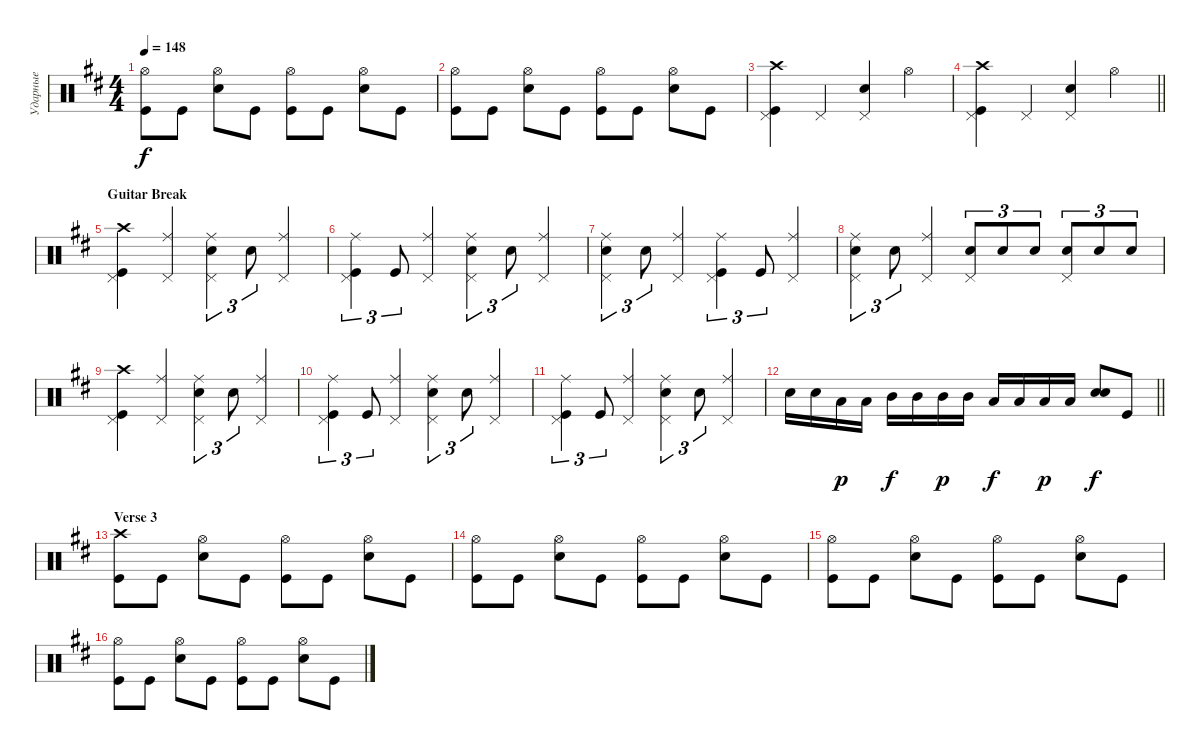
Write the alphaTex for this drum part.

\track ("Ударные" "Ударные") {instrument percussion}
\staff {score}
\articulation defaults
\ts (4 4)
\tempo 148
\clef neutral
\ks bminor
("Hi-Hat (open)" "Kick (hit)").8{dy f} "Kick (hit)".8 ("Snare (hit) 2" "Hi-Hat (open)").8 "Kick (hit)".8 ("Kick (hit)" "Hi-Hat (open)").8 "Kick (hit)".8 ("Snare (hit) 2" "Hi-Hat (open)").8 "Kick (hit)".8 |
("Hi-Hat (open)" "Kick (hit)").8 "Kick (hit)".8 ("Snare (hit) 2" "Hi-Hat (open)").8 "Kick (hit)".8 ("Kick (hit)" "Hi-Hat (open)").8 "Kick (hit)".8 ("Snare (hit) 2" "Hi-Hat (open)").8 "Kick (hit)".8 |
("Pedal Hi-Hat (hit)" "Crash high (hit)" "Kick (hit)").4 "Pedal Hi-Hat (hit)".4 ("Snare (hit) 2" "Pedal Hi-Hat (hit)").4 "Hi-Hat (open)".4 |
\barLineRight lightlight
("Kick (hit)" "Crash high (hit)" "Pedal Hi-Hat (hit)").4 "Pedal Hi-Hat (hit)".4 ("Snare (hit) 2" "Pedal Hi-Hat (hit)").4 "Hi-Hat (open)".4 |
\section ("" "Guitar Break")
("Kick (hit)" "Pedal Hi-Hat (hit)" "Crash high (hit)").4 ("Pedal Hi-Hat (hit)" "Ride (middle)").4 ("Snare (hit) 2" "Pedal Hi-Hat (hit)" "Ride (middle)").4{tu (3 2)} "Snare (hit) 2".8{tu (3 2)} ("Pedal Hi-Hat (hit)" "Ride (middle)").4 |
("Kick (hit)" "Pedal Hi-Hat (hit)" "Ride (middle)").4{tu (3 2)} "Kick (hit)".8{tu (3 2)} ("Pedal Hi-Hat (hit)" "Ride (middle)").4 ("Snare (hit) 2" "Pedal Hi-Hat (hit)" "Ride (middle)").4{tu (3 2)} "Snare (hit) 2".8{tu (3 2)} ("Pedal Hi-Hat (hit)" "Ride (middle)").4 |
("Snare (hit) 2" "Pedal Hi-Hat (hit)" "Ride (middle)").4{tu (3 2)} "Snare (hit) 2".8{tu (3 2)} ("Pedal Hi-Hat (hit)" "Ride (middle)").4 ("Kick (hit)" "Pedal Hi-Hat (hit)" "Ride (middle)").4{tu (3 2)} "Kick (hit)".8{tu (3 2)} ("Pedal Hi-Hat (hit)" "Ride (middle)").4 |
("Snare (hit) 2" "Pedal Hi-Hat (hit)" "Ride (middle)").4{tu (3 2)} "Snare (hit) 2".8{tu (3 2)} ("Pedal Hi-Hat (hit)" "Ride (middle)").4 ("Snare (hit) 2" "Pedal Hi-Hat (hit)").8{tu (3 2)} "Snare (hit) 2".8{tu (3 2)} "Snare (hit) 2".8{tu (3 2)} ("Snare (hit) 2" "Pedal Hi-Hat (hit)").8{tu (3 2)} "Snare (hit) 2".8{tu (3 2)} "Snare (hit) 2".8{tu (3 2)} |
("Kick (hit)" "Pedal Hi-Hat (hit)" "Crash high (hit)").4 ("Pedal Hi-Hat (hit)" "Ride (middle)").4 ("Snare (hit) 2" "Pedal Hi-Hat (hit)" "Ride (middle)").4{tu (3 2)} "Snare (hit) 2".8{tu (3 2)} ("Pedal Hi-Hat (hit)" "Ride (middle)").4 |
("Kick (hit)" "Pedal Hi-Hat (hit)" "Ride (middle)").4{tu (3 2)} "Kick (hit)".8{tu (3 2)} ("Pedal Hi-Hat (hit)" "Ride (middle)").4 ("Snare (hit) 2" "Pedal Hi-Hat (hit)" "Ride (middle)").4{tu (3 2)} "Snare (hit) 2".8{tu (3 2)} ("Pedal Hi-Hat (hit)" "Ride (middle)").4 |
("Kick (hit)" "Pedal Hi-Hat (hit)" "Ride (middle)").4{tu (3 2)} "Kick (hit)".8{tu (3 2)} ("Pedal Hi-Hat (hit)" "Ride (middle)").4 ("Snare (hit) 2" "Pedal Hi-Hat (hit)" "Ride (middle)").4{tu (3 2)} "Snare (hit) 2".8{tu (3 2)} ("Pedal Hi-Hat (hit)" "Ride (middle)").4 |
\barLineRight lightlight "Snare (hit) 2".16 "Snare (hit) 2".16 "Low Floor Tom (hit)".16{dy p} "Low Floor Tom (hit)".16 "Mid Tom (hit)".16{dy f} "Mid Tom (hit)".16 "Mid Tom (hit)".16{dy p} "Mid Tom (hit)".16 "Low Tom (hit)".16{dy f} "Low Tom (hit)".16 "Low Tom (hit)".16{dy p} "Low Tom (hit)".16
("Snare (hit) 2" "Snare (hit) 2").8{bd 120 dy f} "Kick (hit)".8 |
\section ("" "Verse 3")
("Crash high (hit)" "Kick (hit)").8 "Kick (hit)".8 ("Snare (hit) 2" "Hi-Hat (open)").8 "Kick (hit)".8 ("Kick (hit)" "Hi-Hat (open)").8 "Kick (hit)".8 ("Snare (hit) 2" "Hi-Hat (open)").8 "Kick (hit)".8 |
("Hi-Hat (open)" "Kick (hit)").8 "Kick (hit)".8 ("Snare (hit) 2" "Hi-Hat (open)").8 "Kick (hit)".8 ("Kick (hit)" "Hi-Hat (open)").8 "Kick (hit)".8 ("Snare (hit) 2" "Hi-Hat (open)").8 "Kick (hit)".8 |
("Hi-Hat (open)" "Kick (hit)").8 "Kick (hit)".8 ("Snare (hit) 2" "Hi-Hat (open)").8 "Kick (hit)".8 ("Kick (hit)" "Hi-Hat (open)").8 "Kick (hit)".8 ("Snare (hit) 2" "Hi-Hat (open)").8 "Kick (hit)".8 |
("Hi-Hat (open)" "Kick (hit)").8 "Kick (hit)".8 ("Snare (hit) 2" "Hi-Hat (open)").8 "Kick (hit)".8 ("Kick (hit)" "Hi-Hat (open)").8 "Kick (hit)".8 ("Snare (hit) 2" "Hi-Hat (open)").8 "Kick (hit)".8
